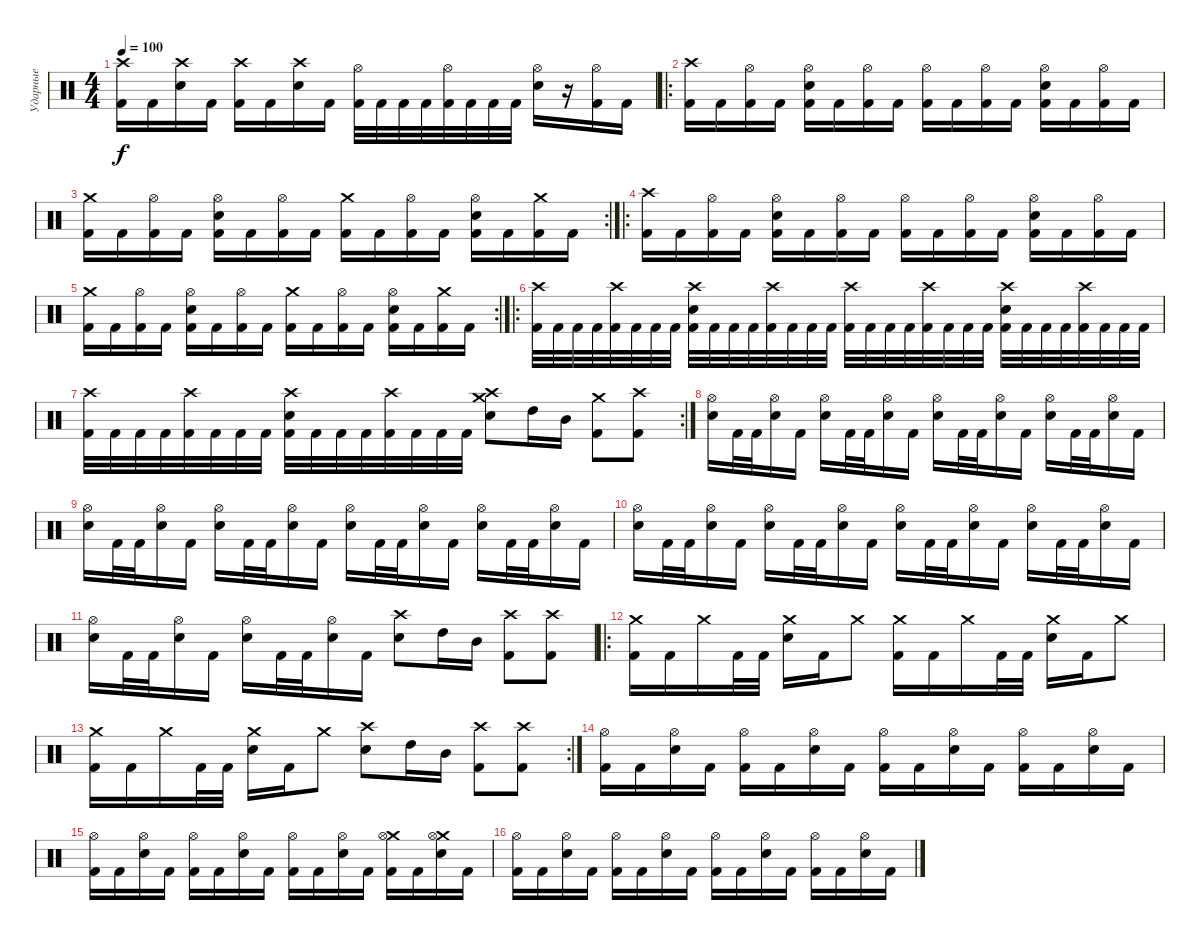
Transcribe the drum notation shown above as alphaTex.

\track ("Ударные" "Ударные") {instrument percussion}
\staff {score}
\articulation defaults
\ts (4 4)
\tempo 100
\clef neutral
\ks c
("Crash high (hit)" "Kick (hit) 2").16{dy f} "Kick (hit) 2".16 ("Crash high (hit)" "Electric Snare (hit)").16 "Kick (hit) 2".16 ("Crash high (hit)" "Kick (hit) 2").16 "Kick (hit) 2".16 ("Crash high (hit)" "Electric Snare (hit)").16 "Kick (hit) 2".16 ("Hi-Hat (open)" "Kick (hit) 2").32 "Kick (hit) 2".32 "Kick (hit) 2".32 "Kick (hit) 2".32 ("Hi-Hat (open)" "Kick (hit) 2").32 "Kick (hit) 2".32 "Kick (hit) 2".32 "Kick (hit) 2".32 ("Hi-Hat (open)" "Electric Snare (hit)").16 r.16 ("Hi-Hat (open)" "Kick (hit) 2").16 "Kick (hit) 2".16 |
\ro
("Crash high (hit)" "Kick (hit) 2").16 "Kick (hit) 2".16 ("Hi-Hat (open)" "Kick (hit) 2").16 "Kick (hit) 2".16 ("Hi-Hat (open)" "Electric Snare (hit)" "Kick (hit) 2").16 "Kick (hit) 2".16 ("Hi-Hat (open)" "Kick (hit) 2").16 "Kick (hit) 2".16 ("Hi-Hat (open)" "Kick (hit) 2").16 "Kick (hit) 2".16 ("Hi-Hat (open)" "Kick (hit) 2").16 "Kick (hit) 2".16 ("Hi-Hat (open)" "Electric Snare (hit)" "Kick (hit) 2").16 "Kick (hit) 2".16 ("Hi-Hat (open)" "Kick (hit) 2").16 "Kick (hit) 2".16 |
\rc 2
("Crash medium (hit)" "Kick (hit) 2").16 "Kick (hit) 2".16 ("Hi-Hat (open)" "Kick (hit) 2").16 "Kick (hit) 2".16 ("Hi-Hat (open)" "Electric Snare (hit)" "Kick (hit) 2").16 "Kick (hit) 2".16 ("Hi-Hat (open)" "Kick (hit) 2").16 "Kick (hit) 2".16 ("Crash medium (hit)" "Kick (hit) 2").16 "Kick (hit) 2".16 ("Hi-Hat (open)" "Kick (hit) 2").16 "Kick (hit) 2".16 ("Hi-Hat (open)" "Electric Snare (hit)" "Kick (hit) 2").16 "Kick (hit) 2".16 ("Crash medium (hit)" "Kick (hit) 2").16 "Kick (hit) 2".16 |
\ro
("Crash high (hit)" "Kick (hit) 2").16 "Kick (hit) 2".16 ("Hi-Hat (open)" "Kick (hit) 2").16 "Kick (hit) 2".16 ("Hi-Hat (open)" "Electric Snare (hit)" "Kick (hit) 2").16 "Kick (hit) 2".16 ("Hi-Hat (open)" "Kick (hit) 2").16 "Kick (hit) 2".16 ("Hi-Hat (open)" "Kick (hit) 2").16 "Kick (hit) 2".16 ("Hi-Hat (open)" "Kick (hit) 2").16 "Kick (hit) 2".16 ("Hi-Hat (open)" "Electric Snare (hit)" "Kick (hit) 2").16 "Kick (hit) 2".16 ("Hi-Hat (open)" "Kick (hit) 2").16 "Kick (hit) 2".16 |
\rc 2
("Crash medium (hit)" "Kick (hit) 2").16 "Kick (hit) 2".16 ("Hi-Hat (open)" "Kick (hit) 2").16 "Kick (hit) 2".16 ("Hi-Hat (open)" "Electric Snare (hit)" "Kick (hit) 2").16 "Kick (hit) 2".16 ("Hi-Hat (open)" "Kick (hit) 2").16 "Kick (hit) 2".16 ("Crash medium (hit)" "Kick (hit) 2").16 "Kick (hit) 2".16 ("Hi-Hat (open)" "Kick (hit) 2").16 "Kick (hit) 2".16 ("Hi-Hat (open)" "Electric Snare (hit)" "Kick (hit) 2").16 "Kick (hit) 2".16 ("Crash medium (hit)" "Kick (hit) 2").16 "Kick (hit) 2".16 |
\ro
("Crash high (hit)" "Kick (hit) 2").32 "Kick (hit) 2".32 "Kick (hit) 2".32 "Kick (hit) 2".32 ("Crash high (hit)" "Kick (hit) 2").32 "Kick (hit) 2".32 "Kick (hit) 2".32 "Kick (hit) 2".32 ("Crash high (hit)" "Electric Snare (hit)" "Kick (hit) 2").32 "Kick (hit) 2".32 "Kick (hit) 2".32 "Kick (hit) 2".32 ("Crash high (hit)" "Kick (hit) 2").32 "Kick (hit) 2".32 "Kick (hit) 2".32 "Kick (hit) 2".32 ("Crash high (hit)" "Kick (hit) 2").32 "Kick (hit) 2".32 "Kick (hit) 2".32 "Kick (hit) 2".32 ("Crash high (hit)" "Kick (hit) 2").32 "Kick (hit) 2".32 "Kick (hit) 2".32 "Kick (hit) 2".32 ("Crash high (hit)" "Electric Snare (hit)" "Kick (hit) 2").32 "Kick (hit) 2".32 "Kick (hit) 2".32 "Kick (hit) 2".32 ("Crash high (hit)" "Kick (hit) 2").32 "Kick (hit) 2".32 "Kick (hit) 2".32 "Kick (hit) 2".32 |
\rc 2
("Crash high (hit)" "Kick (hit) 2").32 "Kick (hit) 2".32 "Kick (hit) 2".32 "Kick (hit) 2".32 ("Crash high (hit)" "Kick (hit) 2").32 "Kick (hit) 2".32 "Kick (hit) 2".32 "Kick (hit) 2".32 ("Crash high (hit)" "Electric Snare (hit)" "Kick (hit) 2").32 "Kick (hit) 2".32 "Kick (hit) 2".32 "Kick (hit) 2".32 ("Crash high (hit)" "Kick (hit) 2").32 "Kick (hit) 2".32 "Kick (hit) 2".32 "Kick (hit) 2".32 ("Crash high (hit)" "Crash medium (hit)" "Electric Snare (hit)").8 "High Tom (hit)".16 "Mid Tom (hit)".16 ("Crash medium (hit)" "Kick (hit) 2").8 ("Crash high (hit)" "Kick (hit) 2").8 |
("Hi-Hat (open)" "Electric Snare (hit)").16 "Kick (hit) 2".32 "Kick (hit) 2".32 ("Hi-Hat (open)" "Electric Snare (hit)").16 "Kick (hit) 2".16 ("Hi-Hat (open)" "Electric Snare (hit)").16 "Kick (hit) 2".32 "Kick (hit) 2".32 ("Hi-Hat (open)" "Electric Snare (hit)").16 "Kick (hit) 2".16 ("Hi-Hat (open)" "Electric Snare (hit)").16 "Kick (hit) 2".32 "Kick (hit) 2".32 ("Hi-Hat (open)" "Electric Snare (hit)").16 "Kick (hit) 2".16 ("Hi-Hat (open)" "Electric Snare (hit)").16 "Kick (hit) 2".32 "Kick (hit) 2".32 ("Hi-Hat (open)" "Electric Snare (hit)").16 "Kick (hit) 2".16 |
("Hi-Hat (open)" "Electric Snare (hit)").16 "Kick (hit) 2".32 "Kick (hit) 2".32 ("Hi-Hat (open)" "Electric Snare (hit)").16 "Kick (hit) 2".16 ("Hi-Hat (open)" "Electric Snare (hit)").16 "Kick (hit) 2".32 "Kick (hit) 2".32 ("Hi-Hat (open)" "Electric Snare (hit)").16 "Kick (hit) 2".16 ("Hi-Hat (open)" "Electric Snare (hit)").16 "Kick (hit) 2".32 "Kick (hit) 2".32 ("Hi-Hat (open)" "Electric Snare (hit)").16 "Kick (hit) 2".16 ("Hi-Hat (open)" "Electric Snare (hit)").16 "Kick (hit) 2".32 "Kick (hit) 2".32 ("Hi-Hat (open)" "Electric Snare (hit)").16 "Kick (hit) 2".16 |
("Hi-Hat (open)" "Electric Snare (hit)").16 "Kick (hit) 2".32 "Kick (hit) 2".32 ("Hi-Hat (open)" "Electric Snare (hit)").16 "Kick (hit) 2".16 ("Hi-Hat (open)" "Electric Snare (hit)").16 "Kick (hit) 2".32 "Kick (hit) 2".32 ("Hi-Hat (open)" "Electric Snare (hit)").16 "Kick (hit) 2".16 ("Hi-Hat (open)" "Electric Snare (hit)").16 "Kick (hit) 2".32 "Kick (hit) 2".32 ("Hi-Hat (open)" "Electric Snare (hit)").16 "Kick (hit) 2".16 ("Hi-Hat (open)" "Electric Snare (hit)").16 "Kick (hit) 2".32 "Kick (hit) 2".32 ("Hi-Hat (open)" "Electric Snare (hit)").16 "Kick (hit) 2".16 |
("Hi-Hat (open)" "Electric Snare (hit)").16 "Kick (hit) 2".32 "Kick (hit) 2".32 ("Hi-Hat (open)" "Electric Snare (hit)").16 "Kick (hit) 2".16 ("Hi-Hat (open)" "Electric Snare (hit)").16 "Kick (hit) 2".32 "Kick (hit) 2".32 ("Hi-Hat (open)" "Electric Snare (hit)").16 "Kick (hit) 2".16 ("Crash high (hit)" "Electric Snare (hit)").8 "High Tom (hit)".16 "Mid Tom (hit)".16 ("Crash high (hit)" "Kick (hit) 2").8 ("Crash high (hit)" "Kick (hit) 2").8 |
\ro
("Crash medium (hit)" "Kick (hit) 2").16 "Kick (hit) 2".16 "Crash medium (hit)".16 "Kick (hit) 2".32 "Kick (hit) 2".32 ("Crash medium (hit)" "Electric Snare (hit)").16 "Kick (hit) 2".16 "Crash medium (hit)".8 ("Crash medium (hit)" "Kick (hit) 2").16 "Kick (hit) 2".16 "Crash medium (hit)".16 "Kick (hit) 2".32 "Kick (hit) 2".32 ("Crash medium (hit)" "Electric Snare (hit)").16 "Kick (hit) 2".16 "Crash medium (hit)".8 |
\rc 2
("Crash medium (hit)" "Kick (hit) 2").16 "Kick (hit) 2".16 "Crash medium (hit)".16 "Kick (hit) 2".32 "Kick (hit) 2".32 ("Crash medium (hit)" "Electric Snare (hit)").16 "Kick (hit) 2".16 "Crash medium (hit)".8 ("Crash high (hit)" "Electric Snare (hit)").8 "High Tom (hit)".16 "Mid Tom (hit)".16 ("Crash high (hit)" "Kick (hit) 2").8 ("Crash high (hit)" "Kick (hit) 2").8 |
("Hi-Hat (open)" "Kick (hit) 2").16 "Kick (hit) 2".16 ("Hi-Hat (open)" "Electric Snare (hit)").16 "Kick (hit) 2".16 ("Hi-Hat (open)" "Kick (hit) 2").16 "Kick (hit) 2".16 ("Hi-Hat (open)" "Electric Snare (hit)").16 "Kick (hit) 2".16 ("Hi-Hat (open)" "Kick (hit) 2").16 "Kick (hit) 2".16 ("Hi-Hat (open)" "Electric Snare (hit)").16 "Kick (hit) 2".16 ("Hi-Hat (open)" "Kick (hit) 2").16 "Kick (hit) 2".16 ("Hi-Hat (open)" "Electric Snare (hit)").16 "Kick (hit) 2".16 |
("Hi-Hat (open)" "Kick (hit) 2").16 "Kick (hit) 2".16 ("Hi-Hat (open)" "Electric Snare (hit)").16 "Kick (hit) 2".16 ("Hi-Hat (open)" "Kick (hit) 2").16 "Kick (hit) 2".16 ("Hi-Hat (open)" "Electric Snare (hit)").16 "Kick (hit) 2".16 ("Hi-Hat (open)" "Kick (hit) 2").16 "Kick (hit) 2".16 ("Hi-Hat (open)" "Electric Snare (hit)").16 "Kick (hit) 2".16 ("Crash medium (hit)" "Hi-Hat (open)" "Kick (hit) 2").16 "Kick (hit) 2".16 ("Crash medium (hit)" "Hi-Hat (open)" "Electric Snare (hit)").16 "Kick (hit) 2".16 |
("Hi-Hat (open)" "Kick (hit) 2").16 "Kick (hit) 2".16 ("Hi-Hat (open)" "Electric Snare (hit)").16 "Kick (hit) 2".16 ("Hi-Hat (open)" "Kick (hit) 2").16 "Kick (hit) 2".16 ("Hi-Hat (open)" "Electric Snare (hit)").16 "Kick (hit) 2".16 ("Hi-Hat (open)" "Kick (hit) 2").16 "Kick (hit) 2".16 ("Hi-Hat (open)" "Electric Snare (hit)").16 "Kick (hit) 2".16 ("Hi-Hat (open)" "Kick (hit) 2").16 "Kick (hit) 2".16 ("Hi-Hat (open)" "Electric Snare (hit)").16 "Kick (hit) 2".16
